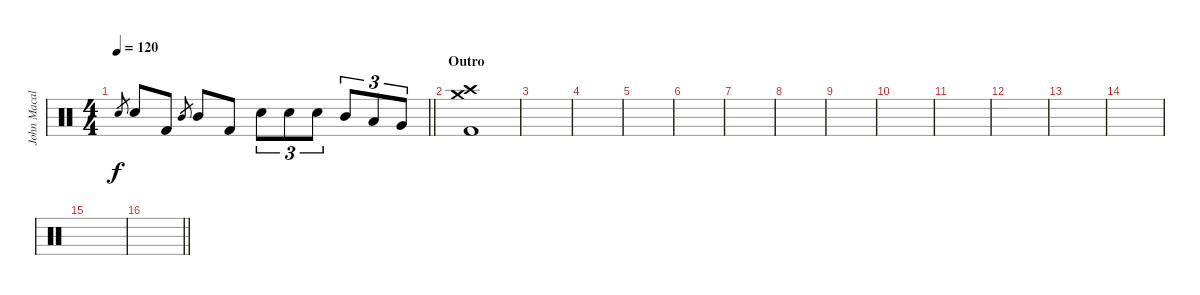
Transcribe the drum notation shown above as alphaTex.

\track ("John Macaluso" "John Macal") {instrument percussion}
\staff {score}
\articulation defaults
\ts (4 4)
\tempo 120
\clef neutral
\barLineRight lightlight
\ks c "Snare (hit) 2".8{gr dy f} "Snare (hit) 2".8 "Kick (hit) 2".8 "Mid Tom (hit)".8{gr} "Mid Tom (hit)".8 "Kick (hit) 2".8 "Snare (hit) 2".8{tu (3 2)} "Snare (hit) 2".8{tu (3 2)} "Snare (hit) 2".8{tu (3 2)} "Mid Tom (hit)".8{tu (3 2)} "Low Tom (hit)".8{tu (3 2)} "Very Low Tom (hit)".8{tu (3 2)}
|
\section ("" "Outro")
("Crash medium (hit)" "Crash high (hit)" "Kick (hit) 2").1 |
|
|
|
|
|
|
|
|
|
|
|
|
|
\barLineRight lightlight
